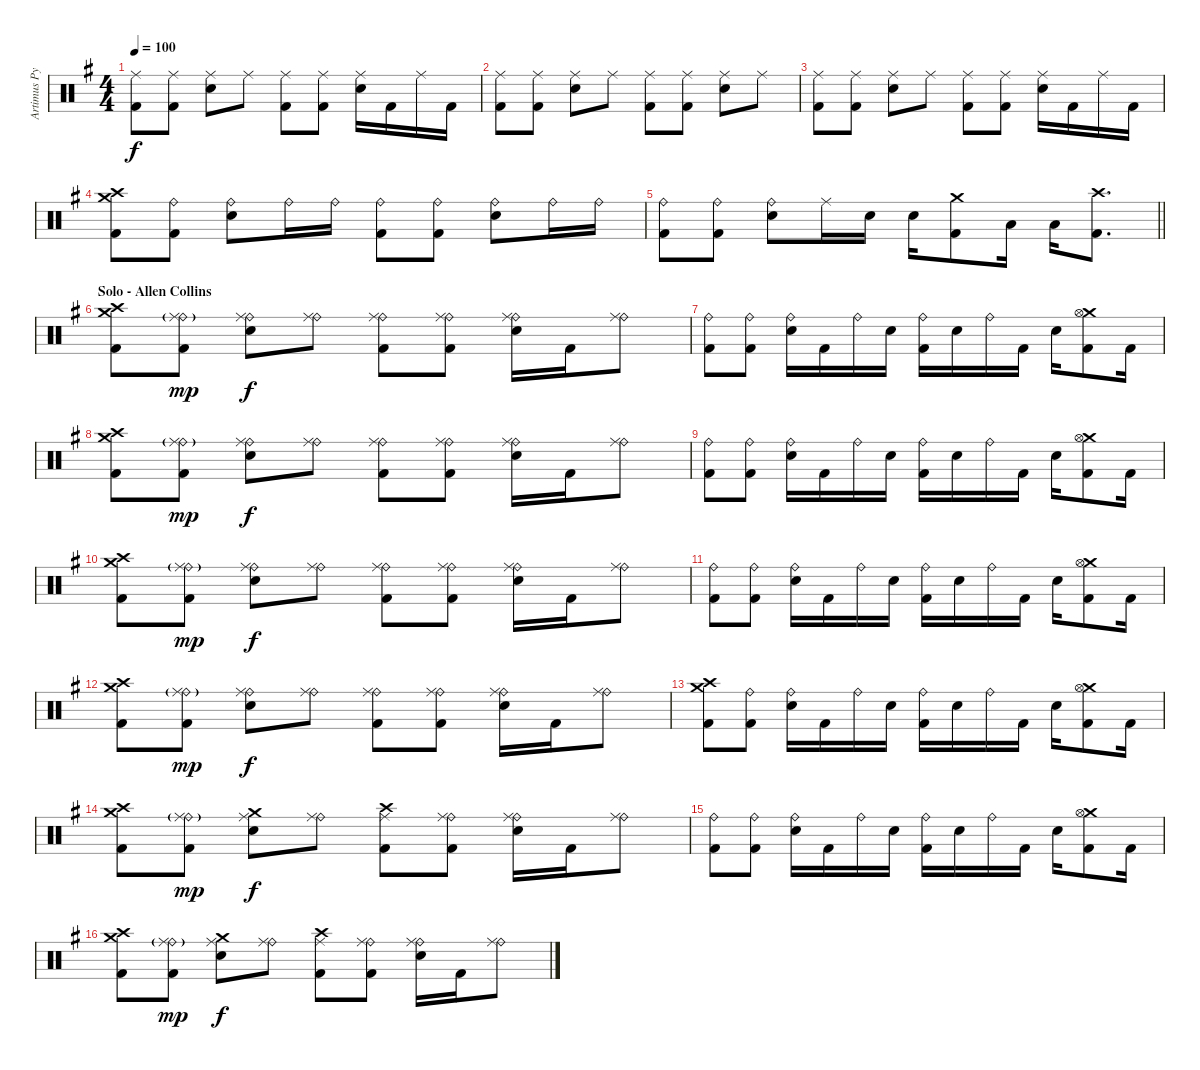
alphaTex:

\track ("Artimus Pyle" "Artimus Py") {instrument percussion}
\staff {score}
\articulation defaults
\ts (4 4)
\tempo 100
\clef neutral
\ks g
("Ride (middle)" "Kick (hit) 2").8{dy f} ("Ride (middle)" "Kick (hit) 2").8 ("Ride (middle)" "Snare (hit) 2").8 "Ride (middle)".8 ("Ride (middle)" "Kick (hit) 2").8 ("Ride (middle)" "Kick (hit) 2").8 ("Ride (middle)" "Snare (hit) 2").16 "Kick (hit) 2".16 "Ride (middle)".16 "Kick (hit) 2".16 |
("Ride (middle)" "Kick (hit) 2").8 ("Ride (middle)" "Kick (hit) 2").8 ("Ride (middle)" "Snare (hit) 2").8 "Ride (middle)".8 ("Ride (middle)" "Kick (hit) 2").8 ("Ride (middle)" "Kick (hit) 2").8 ("Ride (middle)" "Snare (hit) 2").8 "Ride (middle)".8 |
("Ride (middle)" "Kick (hit) 2").8 ("Ride (middle)" "Kick (hit) 2").8 ("Ride (middle)" "Snare (hit) 2").8 "Ride (middle)".8 ("Ride (middle)" "Kick (hit) 2").8 ("Ride (middle)" "Kick (hit) 2").8 ("Ride (middle)" "Snare (hit) 2").16 "Kick (hit) 2".16 "Ride (middle)".16 "Kick (hit) 2".16 |
("Crash medium (hit)" "Crash high (hit)" "Kick (hit) 2").8 ("Ride (bell)" "Kick (hit) 2").8 ("Ride (bell)" "Snare (hit) 2").8 "Ride (bell)".16 "Ride (bell)".16 ("Ride (bell)" "Kick (hit) 2").8 ("Ride (bell)" "Kick (hit) 2").8 ("Ride (bell)" "Snare (hit) 2").8 "Ride (bell)".16 "Ride (bell)".16 |
\barLineRight lightlight
("Ride (bell)" "Kick (hit) 2").8 ("Ride (bell)" "Kick (hit) 2").8 ("Ride (bell)" "Snare (hit) 2").8 "Ride (middle)".16 "Snare (hit) 2".16 "Snare (hit) 2".16 ("Crash medium (hit)" "Kick (hit) 2").8 "Low Tom (hit)".16 "Low Tom (hit)".16 ("Crash high (hit)" "Kick (hit) 2").8{d} |
\section ("" "Solo - Allen Collins")
("Crash medium (hit)" "Crash high (hit)" "Kick (hit) 2").8 ("Ride (bell)" "Ride (middle)"{g} "Kick (hit) 2").8{dy mp} ("Ride (bell)" "Ride (middle)" "Snare (hit) 2").8{dy f} ("Ride (bell)" "Ride (middle)").8 ("Ride (bell)" "Ride (middle)" "Kick (hit) 2").8 ("Ride (bell)" "Ride (middle)" "Kick (hit) 2").8 ("Ride (bell)" "Ride (middle)" "Snare (hit) 2").16 "Kick (hit) 2".16 ("Ride (bell)" "Ride (middle)").8 |
("Ride (bell)" "Kick (hit) 2").8 ("Ride (bell)" "Kick (hit) 2").8 ("Ride (bell)" "Snare (hit) 2").16 "Kick (hit) 2".16 "Ride (bell)".16 "Snare (hit) 2".16 ("Ride (bell)" "Kick (hit) 2").16 "Snare (hit) 2".16 "Ride (bell)".16 "Kick (hit) 2".16 "Snare (hit) 2".16 ("Crash medium (hit)" "Hi-Hat (open)" "Kick (hit) 2").8 "Kick (hit) 2".16 |
("Crash medium (hit)" "Crash high (hit)" "Kick (hit) 2").8 ("Ride (bell)" "Ride (middle)"{g} "Kick (hit) 2").8{dy mp} ("Ride (bell)" "Ride (middle)" "Snare (hit) 2").8{dy f} ("Ride (bell)" "Ride (middle)").8 ("Ride (bell)" "Ride (middle)" "Kick (hit) 2").8 ("Ride (bell)" "Ride (middle)" "Kick (hit) 2").8 ("Ride (bell)" "Ride (middle)" "Snare (hit) 2").16 "Kick (hit) 2".16 ("Ride (bell)" "Ride (middle)").8 |
("Ride (bell)" "Kick (hit) 2").8 ("Ride (bell)" "Kick (hit) 2").8 ("Ride (bell)" "Snare (hit) 2").16 "Kick (hit) 2".16 "Ride (bell)".16 "Snare (hit) 2".16 ("Ride (bell)" "Kick (hit) 2").16 "Snare (hit) 2".16 "Ride (bell)".16 "Kick (hit) 2".16 "Snare (hit) 2".16 ("Crash medium (hit)" "Hi-Hat (open)" "Kick (hit) 2").8 "Kick (hit) 2".16 |
("Crash medium (hit)" "Crash high (hit)" "Kick (hit) 2").8 ("Ride (bell)" "Ride (middle)"{g} "Kick (hit) 2").8{dy mp} ("Ride (bell)" "Ride (middle)" "Snare (hit) 2").8{dy f} ("Ride (bell)" "Ride (middle)").8 ("Ride (bell)" "Ride (middle)" "Kick (hit) 2").8 ("Ride (bell)" "Ride (middle)" "Kick (hit) 2").8 ("Ride (bell)" "Ride (middle)" "Snare (hit) 2").16 "Kick (hit) 2".16 ("Ride (bell)" "Ride (middle)").8 |
("Ride (bell)" "Kick (hit) 2").8 ("Ride (bell)" "Kick (hit) 2").8 ("Ride (bell)" "Snare (hit) 2").16 "Kick (hit) 2".16 "Ride (bell)".16 "Snare (hit) 2".16 ("Ride (bell)" "Kick (hit) 2").16 "Snare (hit) 2".16 "Ride (bell)".16 "Kick (hit) 2".16 "Snare (hit) 2".16 ("Crash medium (hit)" "Hi-Hat (open)" "Kick (hit) 2").8 "Kick (hit) 2".16 |
("Crash medium (hit)" "Crash high (hit)" "Kick (hit) 2").8 ("Ride (bell)" "Ride (middle)"{g} "Kick (hit) 2").8{dy mp} ("Ride (bell)" "Ride (middle)" "Snare (hit) 2").8{dy f} ("Ride (bell)" "Ride (middle)").8 ("Ride (bell)" "Ride (middle)" "Kick (hit) 2").8 ("Ride (bell)" "Ride (middle)" "Kick (hit) 2").8 ("Ride (bell)" "Ride (middle)" "Snare (hit) 2").16 "Kick (hit) 2".16 ("Ride (bell)" "Ride (middle)").8 |
("Crash medium (hit)" "Crash high (hit)" "Kick (hit) 2").8 ("Ride (bell)" "Kick (hit) 2").8 ("Ride (bell)" "Snare (hit) 2").16 "Kick (hit) 2".16 "Ride (bell)".16 "Snare (hit) 2".16 ("Ride (bell)" "Kick (hit) 2").16 "Snare (hit) 2".16 "Ride (bell)".16 "Kick (hit) 2".16 "Snare (hit) 2".16 ("Crash medium (hit)" "Hi-Hat (open)" "Kick (hit) 2").8 "Kick (hit) 2".16 |
("Crash medium (hit)" "Crash high (hit)" "Kick (hit) 2").8 ("Ride (bell)" "Ride (middle)"{g} "Kick (hit) 2").8{dy mp} ("Crash medium (hit)" "Ride (middle)" "Snare (hit) 2").8{dy f} ("Ride (bell)" "Ride (middle)").8 ("Crash high (hit)" "Ride (middle)" "Kick (hit) 2").8 ("Ride (bell)" "Ride (middle)" "Kick (hit) 2").8 ("Ride (bell)" "Ride (middle)" "Snare (hit) 2").16 "Kick (hit) 2".16 ("Ride (bell)" "Ride (middle)").8 |
("Ride (bell)" "Kick (hit) 2").8 ("Ride (bell)" "Kick (hit) 2").8 ("Ride (bell)" "Snare (hit) 2").16 "Kick (hit) 2".16 "Ride (bell)".16 "Snare (hit) 2".16 ("Ride (bell)" "Kick (hit) 2").16 "Snare (hit) 2".16 "Ride (bell)".16 "Kick (hit) 2".16 "Snare (hit) 2".16 ("Crash medium (hit)" "Hi-Hat (open)" "Kick (hit) 2").8 "Kick (hit) 2".16 |
("Crash medium (hit)" "Crash high (hit)" "Kick (hit) 2").8 ("Ride (bell)" "Ride (middle)"{g} "Kick (hit) 2").8{dy mp} ("Crash medium (hit)" "Ride (middle)" "Snare (hit) 2").8{dy f} ("Ride (bell)" "Ride (middle)").8 ("Crash high (hit)" "Ride (middle)" "Kick (hit) 2").8 ("Ride (bell)" "Ride (middle)" "Kick (hit) 2").8 ("Ride (bell)" "Ride (middle)" "Snare (hit) 2").16 "Kick (hit) 2".16 ("Ride (bell)" "Ride (middle)").8
